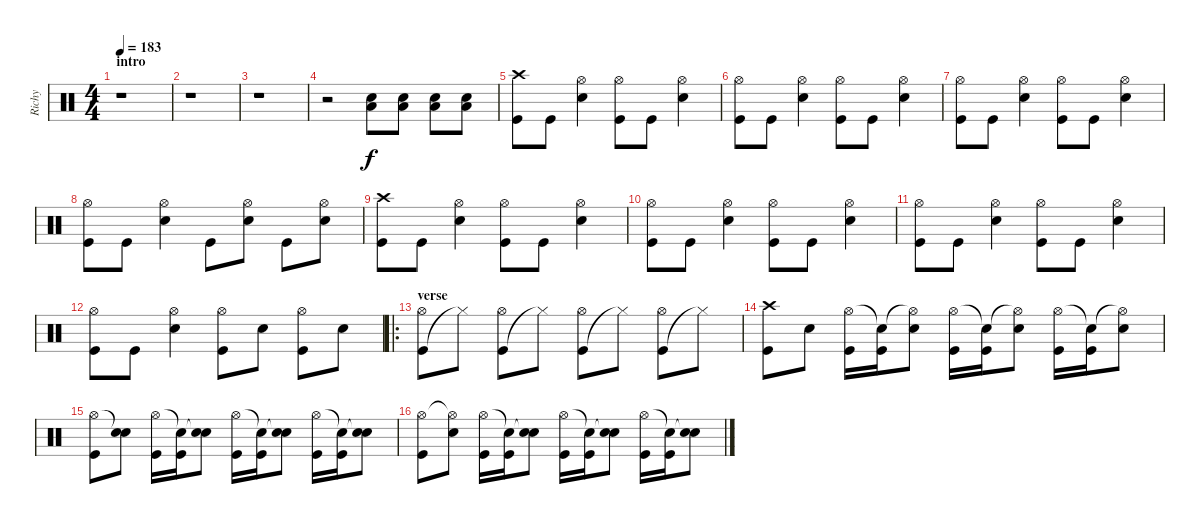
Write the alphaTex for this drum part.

\track ("Richy" "Richy") {instrument percussion}
\staff {score}
\articulation defaults
\ts (4 4)
\section ("" "intro")
\tempo 183
\clef neutral
\ks c
r.1{dy f} |
r.1 |
r.1 |
r.2 ("Snare (hit) 2" "Low Floor Tom (hit)").8 ("Snare (hit) 2" "Low Floor Tom (hit)").8 ("Snare (hit) 2" "Low Floor Tom (hit)").8 ("Snare (hit) 2" "Low Floor Tom (hit)").8 |
("Kick (hit)" "Crash high (hit)").8 "Kick (hit)".8 ("Snare (hit) 2" "Hi-Hat (open)").4 ("Kick (hit)" "Hi-Hat (open)").8 "Kick (hit)".8 ("Snare (hit) 2" "Hi-Hat (open)").4 |
("Kick (hit)" "Hi-Hat (open)").8 "Kick (hit)".8 ("Snare (hit) 2" "Hi-Hat (open)").4 ("Kick (hit)" "Hi-Hat (open)").8 "Kick (hit)".8 ("Snare (hit) 2" "Hi-Hat (open)").4 |
("Kick (hit)" "Hi-Hat (open)").8 "Kick (hit)".8 ("Snare (hit) 2" "Hi-Hat (open)").4 ("Kick (hit)" "Hi-Hat (open)").8 "Kick (hit)".8 ("Snare (hit) 2" "Hi-Hat (open)").4 |
("Kick (hit)" "Hi-Hat (open)").8 "Kick (hit)".8 ("Snare (hit) 2" "Hi-Hat (open)").4 "Kick (hit)".8 ("Snare (hit) 2" "Hi-Hat (open)").8 "Kick (hit)".8 ("Snare (hit) 2" "Hi-Hat (open)").8 |
("Kick (hit)" "Crash high (hit)").8 "Kick (hit)".8 ("Snare (hit) 2" "Hi-Hat (open)").4 ("Kick (hit)" "Hi-Hat (open)").8 "Kick (hit)".8 ("Snare (hit) 2" "Hi-Hat (open)").4 |
("Kick (hit)" "Hi-Hat (open)").8 "Kick (hit)".8 ("Snare (hit) 2" "Hi-Hat (open)").4 ("Kick (hit)" "Hi-Hat (open)").8 "Kick (hit)".8 ("Snare (hit) 2" "Hi-Hat (open)").4 |
("Kick (hit)" "Hi-Hat (open)").8 "Kick (hit)".8 ("Snare (hit) 2" "Hi-Hat (open)").4 ("Kick (hit)" "Hi-Hat (open)").8 "Kick (hit)".8 ("Snare (hit) 2" "Hi-Hat (open)").4 |
("Kick (hit)" "Hi-Hat (open)").8 "Kick (hit)".8 ("Snare (hit) 2" "Hi-Hat (open)").4 ("Kick (hit)" "Hi-Hat (open)").8 "Snare (hit) 2".8 ("Kick (hit)" "Hi-Hat (open)").8 "Snare (hit) 2".8 |
\ro
\section ("" "verse")
("Kick (hit)" "Hi-Hat (open)").8 "Hi-Hat (closed)"{t}.8 ("Kick (hit)" "Hi-Hat (open)").8 "Hi-Hat (closed)"{t}.8 ("Kick (hit)" "Hi-Hat (open)").8 "Hi-Hat (closed)"{t}.8 ("Kick (hit)" "Hi-Hat (open)").8 "Hi-Hat (closed)"{t}.8 |
("Kick (hit)" "Crash high (hit)").8 "Snare (hit) 2".8 ("Kick (hit)" "Hi-Hat (open)").16 ("Kick (hit)" "Snare (hit)"{t}).16 ("Snare (hit) 2" "Hi-Hat (open)"{t}).8 ("Kick (hit)" "Hi-Hat (open)").16 ("Kick (hit)" "Snare (hit)"{t}).16 ("Snare (hit) 2" "Hi-Hat (open)"{t}).8 ("Kick (hit)" "Hi-Hat (open)").16 ("Kick (hit)" "Snare (hit)"{t}).16 ("Snare (hit) 2" "Hi-Hat (open)"{t}).8 |
("Kick (hit)" "Hi-Hat (open)").8 ("Snare (hit) 2" "Snare (hit)"{t}).8 ("Kick (hit)" "Hi-Hat (open)").16 ("Kick (hit)" "Snare (hit)"{t}).16 ("Snare (hit) 2" "Snare (hit)"{t}).8 ("Kick (hit)" "Hi-Hat (open)").16 ("Kick (hit)" "Snare (hit)"{t}).16 ("Snare (hit) 2" "Snare (hit)"{t}).8 ("Kick (hit)" "Hi-Hat (open)").16 ("Kick (hit)" "Snare (hit)"{t}).16 ("Snare (hit) 2" "Snare (hit)"{t}).8 |
("Kick (hit)" "Hi-Hat (open)").8 ("Snare (hit) 2" "Hi-Hat (open)"{t}).8 ("Kick (hit)" "Hi-Hat (open)").16 ("Kick (hit)" "Snare (hit)"{t}).16 ("Snare (hit) 2" "Snare (hit)"{t}).8 ("Kick (hit)" "Hi-Hat (open)").16 ("Kick (hit)" "Snare (hit)"{t}).16 ("Snare (hit) 2" "Snare (hit)"{t}).8 ("Kick (hit)" "Hi-Hat (open)").16 ("Kick (hit)" "Snare (hit)"{t}).16 ("Snare (hit) 2" "Snare (hit)"{t}).8
